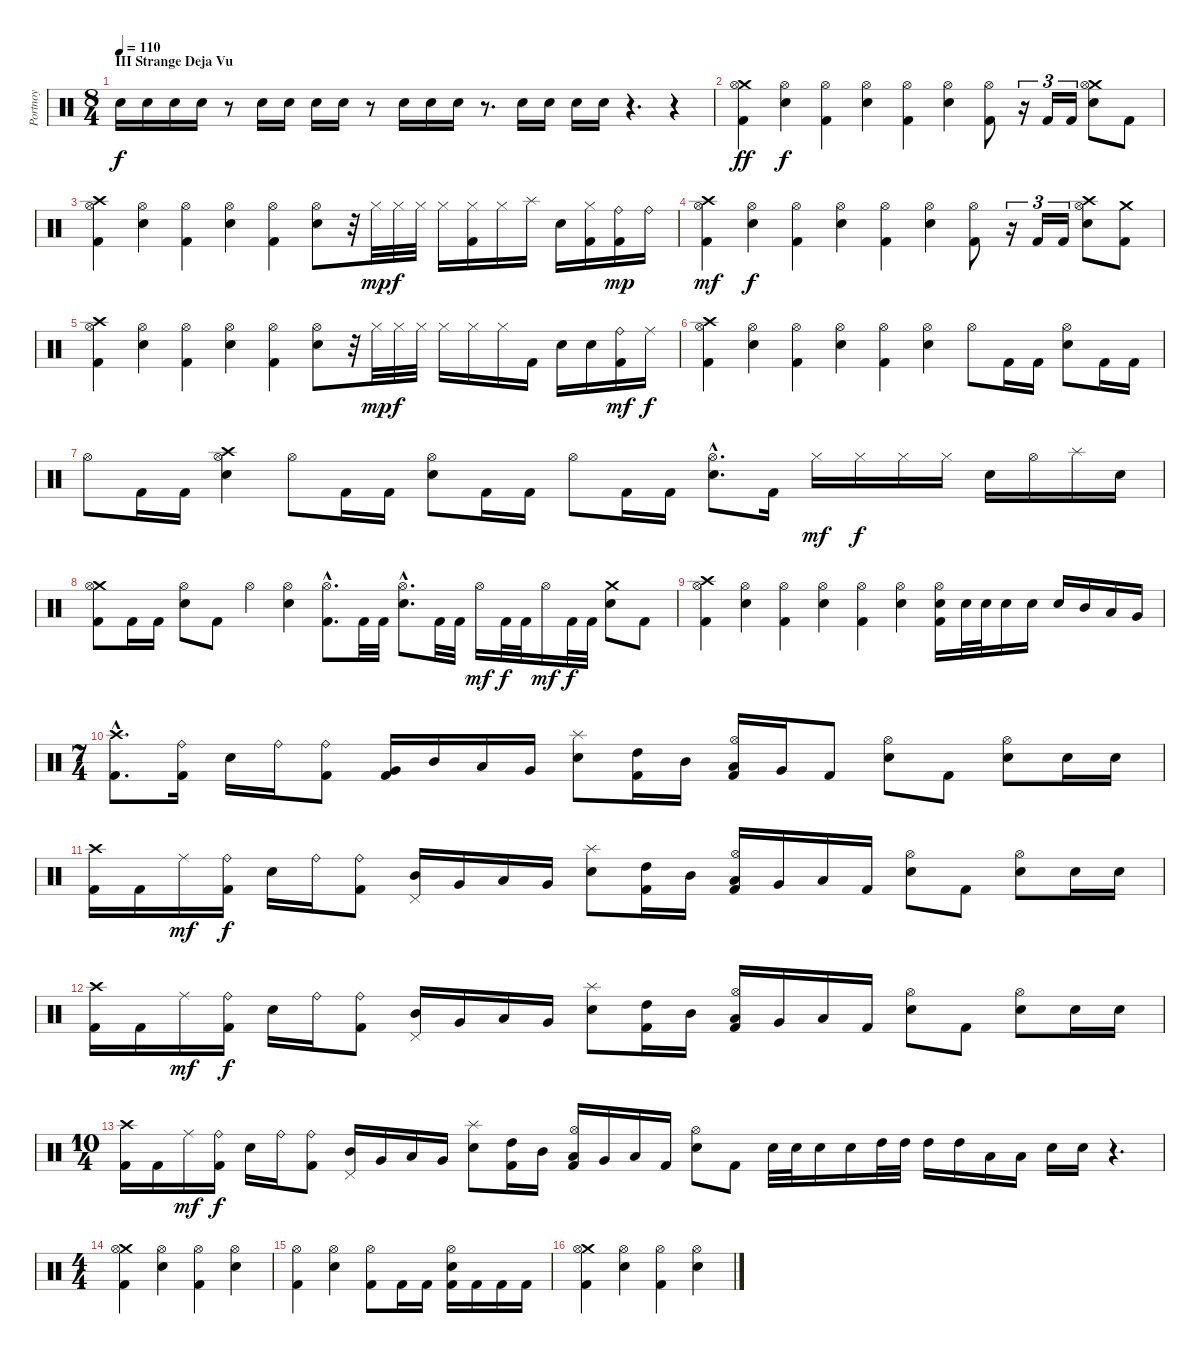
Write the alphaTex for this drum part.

\track ("Portnoy" "Portnoy") {instrument percussion}
\staff {score}
\articulation defaults
\ts (8 4)
\section ("" "III Strange Deja Vu")
\tempo 110
\clef neutral
\ks c "Snare (hit) 2".16{dy f} "Snare (hit) 2".16 "Snare (hit) 2".16 "Snare (hit) 2".16
r.8 "Snare (hit) 2".16 "Snare (hit) 2".16 "Snare (hit) 2".16 "Snare (hit) 2".16 r.8 "Snare (hit) 2".16 "Snare (hit) 2".16 "Snare (hit) 2".16 r.8{d} "Snare (hit) 2".16 "Snare (hit) 2".16 "Snare (hit) 2".16 "Snare (hit) 2".16 r.4{d} r.4 |
("Kick (hit) 2" "Crash medium (hit)" "Hi-Hat (open)").4{dy ff} ("Hi-Hat (open)" "Snare (hit) 2").4{dy f} ("Kick (hit) 2" "Hi-Hat (open)").4 ("Hi-Hat (open)" "Snare (hit) 2").4 ("Kick (hit) 2" "Hi-Hat (open)").4 ("Hi-Hat (open)" "Snare (hit) 2").4 ("Kick (hit) 2" "Hi-Hat (open)").8 r.16{tu (3 2)} "Kick (hit) 2".16{tu (3 2)} "Kick (hit) 2".16{tu (3 2)} ("Crash medium (hit)" "Hi-Hat (open)" "Snare (hit) 2").8 "Kick (hit) 2".8 |
("Kick (hit) 2" "Crash high (hit)" "Hi-Hat (open)").4 ("Hi-Hat (open)" "Snare (hit) 2").4 ("Kick (hit) 2" "Hi-Hat (open)").4 ("Hi-Hat (open)" "Snare (hit) 2").4 ("Kick (hit) 2" "Hi-Hat (open)").4 ("Hi-Hat (open)" "Snare (hit) 2").8 r.32 "Hi-Hat (closed)".32{dy mp} "Hi-Hat (closed)".32{dy f} "Hi-Hat (closed)".32 "Hi-Hat (closed)".16 ("Kick (hit) 2" "Hi-Hat (closed)").16 "Hi-Hat (closed)".16 "Splash (hit)".16 "Snare (hit) 2".16 ("Kick (hit) 2" "Hi-Hat (closed)").16 ("Kick (hit) 2" "Ride (bell)").16{dy mp} "Ride (bell)".16 |
("Kick (hit) 2" "Crash high (hit)" "Hi-Hat (open)").4{dy mf} ("Hi-Hat (open)" "Snare (hit) 2").4{dy f} ("Kick (hit) 2" "Hi-Hat (open)").4 ("Hi-Hat (open)" "Snare (hit) 2").4 ("Kick (hit) 2" "Hi-Hat (open)").4 ("Hi-Hat (open)" "Snare (hit) 2").4 ("Kick (hit) 2" "Hi-Hat (open)").8 r.16{tu (3 2)} "Kick (hit) 2".16{tu (3 2)} "Kick (hit) 2".16{tu (3 2)} ("Crash high (hit)" "Hi-Hat (open)" "Snare (hit) 2").8 ("Kick (hit) 2" "Crash medium (hit)").8 |
("Kick (hit) 2" "Crash high (hit)" "Hi-Hat (open)").4 ("Hi-Hat (open)" "Snare (hit) 2").4 ("Kick (hit) 2" "Hi-Hat (open)").4 ("Hi-Hat (open)" "Snare (hit) 2").4 ("Kick (hit) 2" "Hi-Hat (open)").4 ("Hi-Hat (open)" "Snare (hit) 2").8 r.32 "Hi-Hat (closed)".32{dy mp} "Hi-Hat (closed)".32{dy f} "Hi-Hat (closed)".32 "Hi-Hat (closed)".16 "Hi-Hat (closed)".16 "Hi-Hat (closed)".16 "Kick (hit) 2".16 "Snare (hit) 2".16 "Snare (hit) 2".16 ("Kick (hit) 2" "Ride (bell)").16{dy mf} "Ride (middle)".16{dy f} |
("Kick (hit) 2" "Crash high (hit)" "Hi-Hat (open)").4 ("Hi-Hat (open)" "Snare (hit) 2").4 ("Kick (hit) 2" "Hi-Hat (open)").4 ("Hi-Hat (open)" "Snare (hit) 2").4 ("Kick (hit) 2" "Hi-Hat (open)").4 ("Hi-Hat (open)" "Snare (hit) 2").4 "Hi-Hat (open)".8 "Kick (hit) 2".16 "Kick (hit) 2".16 ("Hi-Hat (open)" "Snare (hit) 2").8 "Kick (hit) 2".16 "Kick (hit) 2".16 |
"Hi-Hat (open)".8 "Kick (hit) 2".16 "Kick (hit) 2".16 ("Crash high (hit)" "Hi-Hat (open)" "Snare (hit) 2").4 "Hi-Hat (open)".8 "Kick (hit) 2".16 "Kick (hit) 2".16 ("Hi-Hat (open)" "Snare (hit) 2").8 "Kick (hit) 2".16 "Kick (hit) 2".16 "Hi-Hat (open)".8 "Kick (hit) 2".16 "Kick (hit) 2".16 ("Hi-Hat (open)"{hac} "Snare (hit) 2"{hac}).8{d} "Kick (hit) 2".16 "Hi-Hat (closed)".16{dy mf} "Hi-Hat (closed)".16{dy f} "Hi-Hat (closed)".16 "Hi-Hat (closed)".16 "Snare (hit) 2".16 "Hi-Hat (open)".16 "Splash (hit)".16 "Snare (hit) 2".16 |
("Kick (hit) 2" "Crash medium (hit)" "Hi-Hat (open)").8 "Kick (hit) 2".16 "Kick (hit) 2".16 ("Hi-Hat (open)" "Snare (hit) 2").8 "Kick (hit) 2".8 "Hi-Hat (open)".4 ("Hi-Hat (open)" "Snare (hit) 2").4 ("Kick (hit) 2"{hac} "Hi-Hat (open)"{hac}).8{d} "Kick (hit) 2".32 "Kick (hit) 2".32 ("Hi-Hat (open)"{hac} "Snare (hit) 2"{hac}).8{d} "Kick (hit) 2".32 "Kick (hit) 2".32 "Hi-Hat (open)".16{dy mf} "Kick (hit) 2".32{dy f} "Kick (hit) 2".32 "Hi-Hat (open)".16{dy mf} "Kick (hit) 2".32{dy f} "Kick (hit) 2".32 ("Crash medium (hit)" "Snare (hit) 2").8 "Kick (hit) 2".8 |
("Kick (hit) 2" "Crash high (hit)" "Hi-Hat (open)").4 ("Hi-Hat (open)" "Snare (hit) 2").4 ("Kick (hit) 2" "Hi-Hat (open)").4 ("Hi-Hat (open)" "Snare (hit) 2").4 ("Kick (hit) 2" "Hi-Hat (open)").4 ("Hi-Hat (open)" "Snare (hit) 2").4 ("Kick (hit) 2" "Hi-Hat (open)" "Snare (hit) 2").16 "Snare (hit) 2".32 "Snare (hit) 2".32 "Snare (hit) 2".16 "Snare (hit) 2".16 "Snare (hit) 2".16 "Mid Tom (hit)".16 "Low Tom (hit)".16 "Very Low Tom (hit)".16 |
\ts (7 4)
("Kick (hit) 2"{hac} "Crash high (hit)"{hac}).8{d} ("Kick (hit) 2" "Ride (bell)").16 "Snare (hit) 2".16 "Ride (bell)".16 ("Kick (hit) 2" "Ride (bell)").8 ("Kick (hit) 2" "Very Low Tom (hit)").16 "Mid Tom (hit)".16 "Low Tom (hit)".16 "Very Low Tom (hit)".16 ("Splash (hit)" "Snare (hit) 2").8 ("Kick (hit) 2" "High Tom (hit)").16 "Mid Tom (hit)".16 ("Kick (hit) 2" "Low Tom (hit)" "Hi-Hat (open)").16 "Very Low Tom (hit)".16 "Kick (hit) 2".8 ("Hi-Hat (open)" "Snare (hit) 2").8 "Kick (hit) 2".8 ("Hi-Hat (open)" "Snare (hit) 2").8 "Snare (hit) 2".16 "Snare (hit) 2".16 |
("Kick (hit) 2" "Crash high (hit)").16 "Kick (hit) 2".16 "Ride (middle)".16{dy mf} ("Kick (hit) 2" "Ride (bell)").16{dy f} "Snare (hit) 2".16 "Ride (bell)".16 ("Kick (hit) 2" "Ride (bell)").8 ("Mid Tom (hit)" "Pedal Hi-Hat (hit)").16 "Very Low Tom (hit)".16 "Low Tom (hit)".16 "Very Low Tom (hit)".16 ("Splash (hit)" "Snare (hit) 2").8 ("Kick (hit) 2" "High Tom (hit)").16 "Mid Tom (hit)".16 ("Kick (hit) 2" "Low Tom (hit)" "Hi-Hat (open)").16 "Very Low Tom (hit)".16 "Low Tom (hit)".16 "Kick (hit) 2".16 ("Hi-Hat (open)" "Snare (hit) 2").8 "Kick (hit) 2".8 ("Hi-Hat (open)" "Snare (hit) 2").8 "Snare (hit) 2".16 "Snare (hit) 2".16 |
("Kick (hit) 2" "Crash high (hit)").16 "Kick (hit) 2".16 "Ride (middle)".16{dy mf} ("Kick (hit) 2" "Ride (bell)").16{dy f} "Snare (hit) 2".16 "Ride (bell)".16 ("Kick (hit) 2" "Ride (bell)").8 ("Mid Tom (hit)" "Pedal Hi-Hat (hit)").16 "Very Low Tom (hit)".16 "Low Tom (hit)".16 "Very Low Tom (hit)".16 ("Splash (hit)" "Snare (hit) 2").8 ("Kick (hit) 2" "High Tom (hit)").16 "Mid Tom (hit)".16 ("Kick (hit) 2" "Low Tom (hit)" "Hi-Hat (open)").16 "Very Low Tom (hit)".16 "Low Tom (hit)".16 "Kick (hit) 2".16 ("Hi-Hat (open)" "Snare (hit) 2").8 "Kick (hit) 2".8 ("Hi-Hat (open)" "Snare (hit) 2").8 "Snare (hit) 2".16 "Snare (hit) 2".16 |
\ts (10 4)
("Kick (hit) 2" "Crash high (hit)").16 "Kick (hit) 2".16 "Ride (middle)".16{dy mf} ("Kick (hit) 2" "Ride (bell)").16{dy f} "Snare (hit) 2".16 "Ride (bell)".16 ("Kick (hit) 2" "Ride (bell)").8 ("Mid Tom (hit)" "Pedal Hi-Hat (hit)").16 "Very Low Tom (hit)".16 "Low Tom (hit)".16 "Very Low Tom (hit)".16 ("Splash (hit)" "Snare (hit) 2").8 ("Kick (hit) 2" "High Tom (hit)").16 "Mid Tom (hit)".16 ("Kick (hit) 2" "Low Tom (hit)" "Hi-Hat (open)").16 "Very Low Tom (hit)".16 "Low Tom (hit)".16 "Kick (hit) 2".16 ("Hi-Hat (open)" "Snare (hit) 2").8 "Kick (hit) 2".8 "Snare (hit) 2".32 "Snare (hit) 2".32 "Snare (hit) 2".16 "Snare (hit) 2".16 "High Tom (hit)".32 "High Tom (hit)".32 "High Tom (hit)".16 "High Tom (hit)".16 "Low Tom (hit)".16 "Low Tom (hit)".16 "Snare (hit) 2".16 "Snare (hit) 2".16 r.4{d} |
\ts (4 4)
("Kick (hit) 2" "Crash medium (hit)" "Hi-Hat (open)").4 ("Hi-Hat (open)" "Snare (hit) 2").4 ("Kick (hit) 2" "Hi-Hat (open)").4 ("Hi-Hat (open)" "Snare (hit) 2").4 |
("Kick (hit) 2" "Hi-Hat (open)").4 ("Hi-Hat (open)" "Snare (hit) 2").4 ("Kick (hit) 2" "Hi-Hat (open)").8 "Kick (hit) 2".16 "Kick (hit) 2".16 ("Kick (hit) 2" "Hi-Hat (open)" "Snare (hit) 2").16 "Kick (hit) 2".16 "Kick (hit) 2".16 "Kick (hit) 2".16 |
("Kick (hit) 2" "Crash medium (hit)" "Hi-Hat (open)").4 ("Hi-Hat (open)" "Snare (hit) 2").4 ("Kick (hit) 2" "Hi-Hat (open)").4 ("Hi-Hat (open)" "Snare (hit) 2").4
